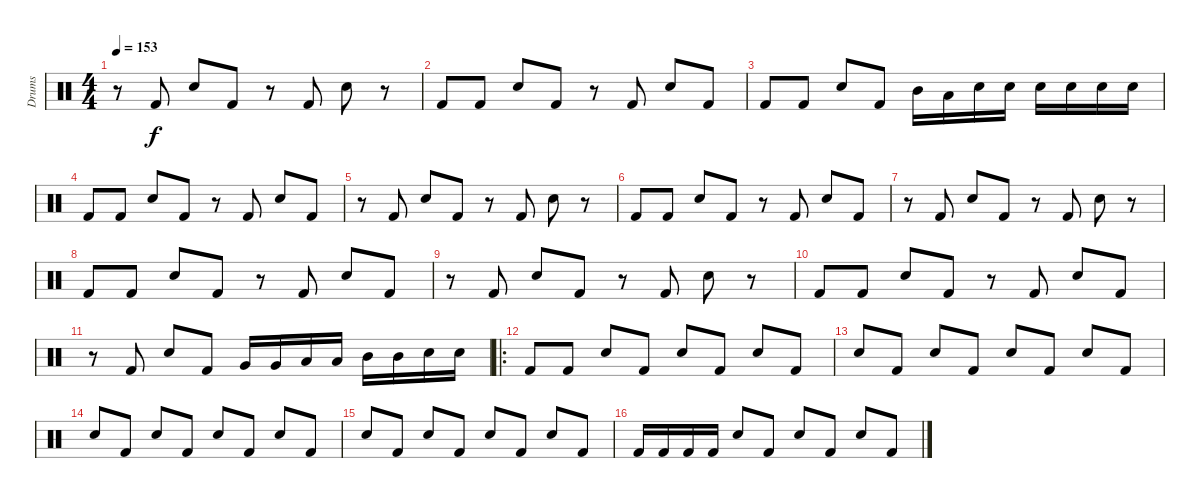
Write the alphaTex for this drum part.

\track ("Drums" "Drums") {instrument percussion}
\staff {score}
\articulation defaults
\ts (4 4)
\tempo 153
\clef neutral
\ks c
r.8{dy f} "Kick (hit) 2".8 "Snare (hit) 2".8 "Kick (hit) 2".8 r.8 "Kick (hit) 2".8 "Snare (hit) 2".8 r.8 |
"Kick (hit) 2".8 "Kick (hit) 2".8 "Snare (hit) 2".8 "Kick (hit) 2".8 r.8 "Kick (hit) 2".8 "Snare (hit) 2".8 "Kick (hit) 2".8 |
"Kick (hit) 2".8 "Kick (hit) 2".8 "Snare (hit) 2".8 "Kick (hit) 2".8 "Mid Tom (hit)".16 "Low Tom (hit)".16 "Snare (hit) 2".16 "Snare (hit) 2".16 "Snare (hit) 2".16 "Snare (hit) 2".16 "Snare (hit) 2".16 "Snare (hit) 2".16 |
"Kick (hit) 2".8 "Kick (hit) 2".8 "Snare (hit) 2".8 "Kick (hit) 2".8 r.8 "Kick (hit) 2".8 "Snare (hit) 2".8 "Kick (hit) 2".8 |
r.8 "Kick (hit) 2".8 "Snare (hit) 2".8 "Kick (hit) 2".8 r.8 "Kick (hit) 2".8 "Snare (hit) 2".8 r.8 |
"Kick (hit) 2".8 "Kick (hit) 2".8 "Snare (hit) 2".8 "Kick (hit) 2".8 r.8 "Kick (hit) 2".8 "Snare (hit) 2".8 "Kick (hit) 2".8 |
r.8 "Kick (hit) 2".8 "Snare (hit) 2".8 "Kick (hit) 2".8 r.8 "Kick (hit) 2".8 "Snare (hit) 2".8 r.8 |
"Kick (hit) 2".8 "Kick (hit) 2".8 "Snare (hit) 2".8 "Kick (hit) 2".8 r.8 "Kick (hit) 2".8 "Snare (hit) 2".8 "Kick (hit) 2".8 |
r.8 "Kick (hit) 2".8 "Snare (hit) 2".8 "Kick (hit) 2".8 r.8 "Kick (hit) 2".8 "Snare (hit) 2".8 r.8 |
"Kick (hit) 2".8 "Kick (hit) 2".8 "Snare (hit) 2".8 "Kick (hit) 2".8 r.8 "Kick (hit) 2".8 "Snare (hit) 2".8 "Kick (hit) 2".8 |
r.8 "Kick (hit) 2".8 "Snare (hit) 2".8 "Kick (hit) 2".8 "Very Low Tom (hit)".16 "Very Low Tom (hit)".16 "Low Tom (hit)".16 "Low Tom (hit)".16 "Mid Tom (hit)".16 "Mid Tom (hit)".16 "Snare (hit) 2".16 "Snare (hit) 2".16 |
\ro "Kick (hit) 2".8 "Kick (hit) 2".8 "Snare (hit) 2".8 "Kick (hit) 2".8 "Snare (hit) 2".8 "Kick (hit) 2".8 "Snare (hit) 2".8 "Kick (hit) 2".8
|
"Snare (hit) 2".8 "Kick (hit) 2".8 "Snare (hit) 2".8 "Kick (hit) 2".8 "Snare (hit) 2".8 "Kick (hit) 2".8 "Snare (hit) 2".8 "Kick (hit) 2".8 |
"Snare (hit) 2".8 "Kick (hit) 2".8 "Snare (hit) 2".8 "Kick (hit) 2".8 "Snare (hit) 2".8 "Kick (hit) 2".8 "Snare (hit) 2".8 "Kick (hit) 2".8 |
"Snare (hit) 2".8 "Kick (hit) 2".8 "Snare (hit) 2".8 "Kick (hit) 2".8 "Snare (hit) 2".8 "Kick (hit) 2".8 "Snare (hit) 2".8 "Kick (hit) 2".8 |
"Kick (hit) 2".16 "Kick (hit) 2".16 "Kick (hit) 2".16 "Kick (hit) 2".16 "Snare (hit) 2".8 "Kick (hit) 2".8 "Snare (hit) 2".8 "Kick (hit) 2".8 "Snare (hit) 2".8 "Kick (hit) 2".8
